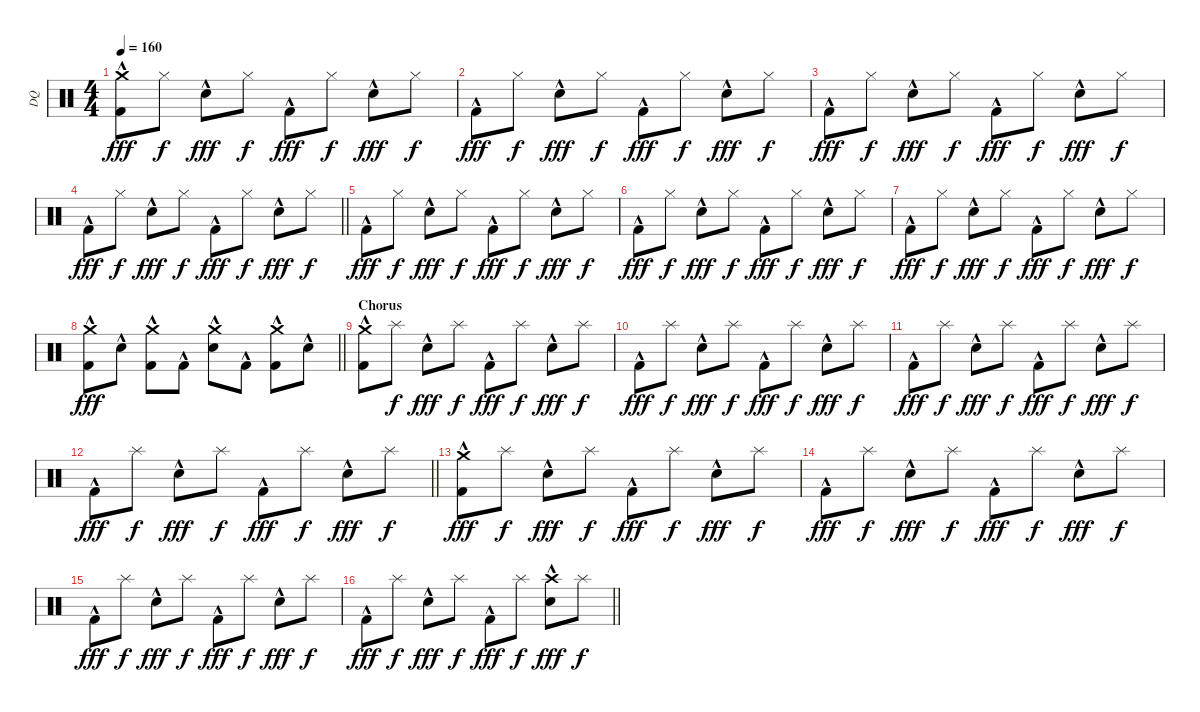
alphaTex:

\track ("DQ" "DQ") {instrument percussion}
\staff {score}
\articulation defaults
\ts (4 4)
\section ("" "")
\tempo 160
\clef neutral
\ks c
("Kick (hit) 2"{hac} "Crash medium (hit)").8{dy fff} "Hi-Hat (closed)".8{dy f} "Snare (hit) 2"{hac}.8{dy fff} "Hi-Hat (closed)".8{dy f} "Kick (hit) 2"{hac}.8{dy fff} "Hi-Hat (closed)".8{dy f} "Snare (hit) 2"{hac}.8{dy fff} "Hi-Hat (closed)".8{dy f} |
"Kick (hit) 2"{hac}.8{dy fff} "Hi-Hat (closed)".8{dy f} "Snare (hit) 2"{hac}.8{dy fff} "Hi-Hat (closed)".8{dy f} "Kick (hit) 2"{hac}.8{dy fff} "Hi-Hat (closed)".8{dy f} "Snare (hit) 2"{hac}.8{dy fff} "Hi-Hat (closed)".8{dy f} |
"Kick (hit) 2"{hac}.8{dy fff} "Hi-Hat (closed)".8{dy f} "Snare (hit) 2"{hac}.8{dy fff} "Hi-Hat (closed)".8{dy f} "Kick (hit) 2"{hac}.8{dy fff} "Hi-Hat (closed)".8{dy f} "Snare (hit) 2"{hac}.8{dy fff} "Hi-Hat (closed)".8{dy f} |
\barLineRight lightlight "Kick (hit) 2"{hac}.8{dy fff} "Hi-Hat (closed)".8{dy f} "Snare (hit) 2"{hac}.8{dy fff} "Hi-Hat (closed)".8{dy f} "Kick (hit) 2"{hac}.8{dy fff} "Hi-Hat (closed)".8{dy f} "Snare (hit) 2"{hac}.8{dy fff} "Hi-Hat (closed)".8{dy f}
|
\section ("" "")
"Kick (hit) 2"{hac}.8{dy fff} "Hi-Hat (closed)".8{dy f} "Snare (hit) 2"{hac}.8{dy fff} "Hi-Hat (closed)".8{dy f} "Kick (hit) 2"{hac}.8{dy fff} "Hi-Hat (closed)".8{dy f} "Snare (hit) 2"{hac}.8{dy fff} "Hi-Hat (closed)".8{dy f} |
"Kick (hit) 2"{hac}.8{dy fff} "Hi-Hat (closed)".8{dy f} "Snare (hit) 2"{hac}.8{dy fff} "Hi-Hat (closed)".8{dy f} "Kick (hit) 2"{hac}.8{dy fff} "Hi-Hat (closed)".8{dy f} "Snare (hit) 2"{hac}.8{dy fff} "Hi-Hat (closed)".8{dy f} |
"Kick (hit) 2"{hac}.8{dy fff} "Hi-Hat (closed)".8{dy f} "Snare (hit) 2"{hac}.8{dy fff} "Hi-Hat (closed)".8{dy f} "Kick (hit) 2"{hac}.8{dy fff} "Hi-Hat (closed)".8{dy f} "Snare (hit) 2"{hac}.8{dy fff} "Hi-Hat (closed)".8{dy f} |
\barLineRight lightlight
("Kick (hit) 2"{hac} "Crash medium (hit)").8{dy fff} "Snare (hit) 2"{hac}.8 ("Kick (hit) 2"{hac} "Crash medium (hit)").8 "Kick (hit) 2"{hac}.8 ("Snare (hit) 2"{hac} "Crash medium (hit)").8 "Kick (hit) 2"{hac}.8 ("Kick (hit) 2"{hac} "Crash medium (hit)").8 "Snare (hit) 2"{hac}.8 |
\section ("" "Chorus")
("Kick (hit) 2"{hac} "Crash medium (hit)").8 "Splash (hit)".8{dy f} "Snare (hit) 2"{hac}.8{dy fff} "Splash (hit)".8{dy f} "Kick (hit) 2"{hac}.8{dy fff} "Splash (hit)".8{dy f} "Snare (hit) 2"{hac}.8{dy fff} "Splash (hit)".8{dy f} |
"Kick (hit) 2"{hac}.8{dy fff} "Splash (hit)".8{dy f} "Snare (hit) 2"{hac}.8{dy fff} "Splash (hit)".8{dy f} "Kick (hit) 2"{hac}.8{dy fff} "Splash (hit)".8{dy f} "Snare (hit) 2"{hac}.8{dy fff} "Splash (hit)".8{dy f} |
"Kick (hit) 2"{hac}.8{dy fff} "Splash (hit)".8{dy f} "Snare (hit) 2"{hac}.8{dy fff} "Splash (hit)".8{dy f} "Kick (hit) 2"{hac}.8{dy fff} "Splash (hit)".8{dy f} "Snare (hit) 2"{hac}.8{dy fff} "Splash (hit)".8{dy f} |
\barLineRight lightlight "Kick (hit) 2"{hac}.8{dy fff} "Splash (hit)".8{dy f} "Snare (hit) 2"{hac}.8{dy fff} "Splash (hit)".8{dy f} "Kick (hit) 2"{hac}.8{dy fff} "Splash (hit)".8{dy f} "Snare (hit) 2"{hac}.8{dy fff} "Splash (hit)".8{dy f}
|
\section ("" "")
("Kick (hit) 2"{hac} "Crash medium (hit)").8{dy fff} "Splash (hit)".8{dy f} "Snare (hit) 2"{hac}.8{dy fff} "Splash (hit)".8{dy f} "Kick (hit) 2"{hac}.8{dy fff} "Splash (hit)".8{dy f} "Snare (hit) 2"{hac}.8{dy fff} "Splash (hit)".8{dy f} |
"Kick (hit) 2"{hac}.8{dy fff} "Splash (hit)".8{dy f} "Snare (hit) 2"{hac}.8{dy fff} "Splash (hit)".8{dy f} "Kick (hit) 2"{hac}.8{dy fff} "Splash (hit)".8{dy f} "Snare (hit) 2"{hac}.8{dy fff} "Splash (hit)".8{dy f} |
"Kick (hit) 2"{hac}.8{dy fff} "Splash (hit)".8{dy f} "Snare (hit) 2"{hac}.8{dy fff} "Splash (hit)".8{dy f} "Kick (hit) 2"{hac}.8{dy fff} "Splash (hit)".8{dy f} "Snare (hit) 2"{hac}.8{dy fff} "Splash (hit)".8{dy f} |
\barLineRight lightlight "Kick (hit) 2"{hac}.8{dy fff} "Splash (hit)".8{dy f} "Snare (hit) 2"{hac}.8{dy fff} "Splash (hit)".8{dy f} "Kick (hit) 2"{hac}.8{dy fff} "Splash (hit)".8{dy f}
("Snare (hit) 2"{hac} "Crash high (hit)").8{dy fff} "Splash (hit)".8{dy f}
